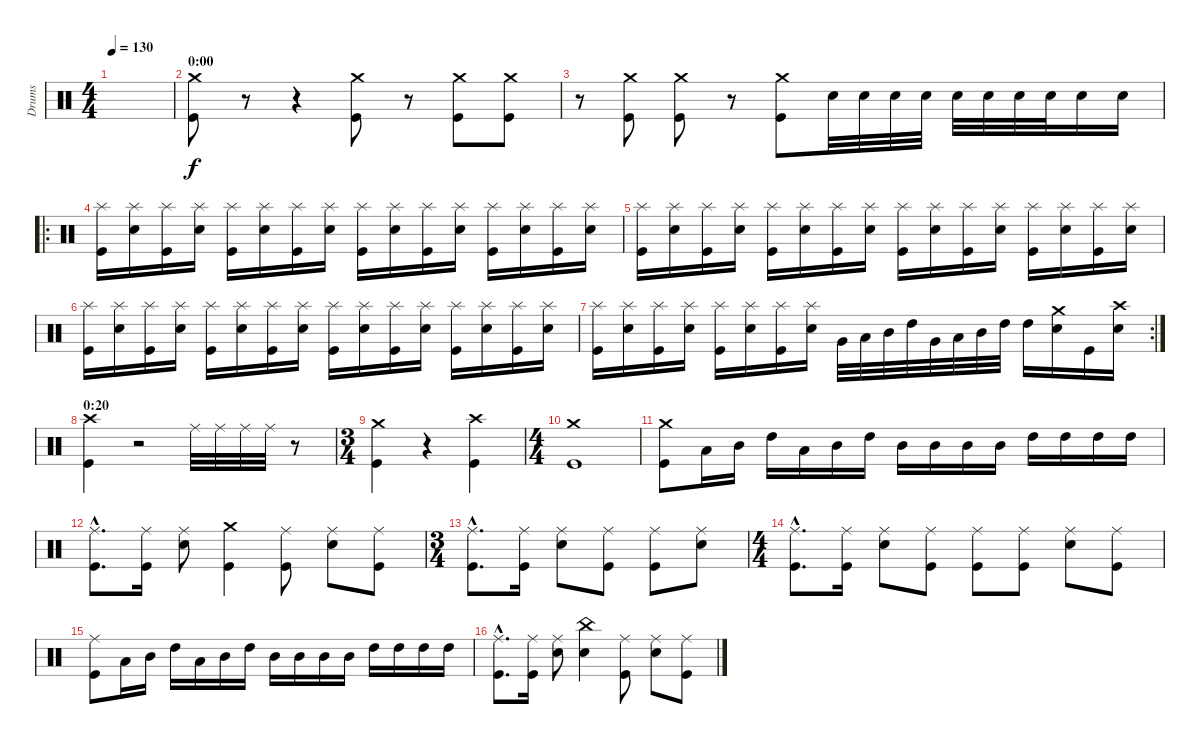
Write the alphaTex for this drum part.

\track ("Drums" "Drums") {instrument percussion}
\staff {score}
\articulation defaults
\ts (4 4)
\tempo 130
\clef neutral
\ks c
|
\section ("" "0:00")
("Kick (hit)" "Crash medium (hit)").8 r.8 r.4 ("Kick (hit)" "Crash medium (hit)").8 r.8 ("Kick (hit)" "Crash medium (hit)").8 ("Kick (hit)" "Crash medium (hit)").8 |
r.8 ("Kick (hit)" "Crash medium (hit)").8 ("Kick (hit)" "Crash medium (hit)").8 r.8 ("Kick (hit)" "Crash medium (hit)").8 "Electric Snare (hit)".32 "Electric Snare (hit)".32 "Electric Snare (hit)".32 "Electric Snare (hit)".32 "Electric Snare (hit)".32 "Electric Snare (hit)".32 "Electric Snare (hit)".32 "Electric Snare (hit)".32 "Electric Snare (hit)".16 "Electric Snare (hit)".16 |
\ro
("Kick (hit)" "Splash (hit)").16 ("Electric Snare (hit)" "Splash (hit)").16 ("Kick (hit)" "Splash (hit)").16 ("Electric Snare (hit)" "Splash (hit)").16 ("Kick (hit)" "Splash (hit)").16 ("Electric Snare (hit)" "Splash (hit)").16 ("Kick (hit)" "Splash (hit)").16 ("Electric Snare (hit)" "Splash (hit)").16 ("Kick (hit)" "Splash (hit)").16 ("Electric Snare (hit)" "Splash (hit)").16 ("Kick (hit)" "Splash (hit)").16 ("Electric Snare (hit)" "Splash (hit)").16 ("Kick (hit)" "Splash (hit)").16 ("Electric Snare (hit)" "Splash (hit)").16 ("Kick (hit)" "Splash (hit)").16 ("Electric Snare (hit)" "Splash (hit)").16 |
("Kick (hit)" "Splash (hit)").16 ("Electric Snare (hit)" "Splash (hit)").16 ("Kick (hit)" "Splash (hit)").16 ("Electric Snare (hit)" "Splash (hit)").16 ("Kick (hit)" "Splash (hit)").16 ("Electric Snare (hit)" "Splash (hit)").16 ("Kick (hit)" "Splash (hit)").16 ("Electric Snare (hit)" "Splash (hit)").16 ("Kick (hit)" "Splash (hit)").16 ("Electric Snare (hit)" "Splash (hit)").16 ("Kick (hit)" "Splash (hit)").16 ("Electric Snare (hit)" "Splash (hit)").16 ("Kick (hit)" "Splash (hit)").16 ("Electric Snare (hit)" "Splash (hit)").16 ("Kick (hit)" "Splash (hit)").16 ("Electric Snare (hit)" "Splash (hit)").16 |
("Kick (hit)" "Splash (hit)").16 ("Electric Snare (hit)" "Splash (hit)").16 ("Kick (hit)" "Splash (hit)").16 ("Electric Snare (hit)" "Splash (hit)").16 ("Kick (hit)" "Splash (hit)").16 ("Electric Snare (hit)" "Splash (hit)").16 ("Kick (hit)" "Splash (hit)").16 ("Electric Snare (hit)" "Splash (hit)").16 ("Kick (hit)" "Splash (hit)").16 ("Electric Snare (hit)" "Splash (hit)").16 ("Kick (hit)" "Splash (hit)").16 ("Electric Snare (hit)" "Splash (hit)").16 ("Kick (hit)" "Splash (hit)").16 ("Electric Snare (hit)" "Splash (hit)").16 ("Kick (hit)" "Splash (hit)").16 ("Electric Snare (hit)" "Splash (hit)").16 |
\rc 2
("Kick (hit)" "Splash (hit)").16 ("Electric Snare (hit)" "Splash (hit)").16 ("Kick (hit)" "Splash (hit)").16 ("Electric Snare (hit)" "Splash (hit)").16 ("Kick (hit)" "Splash (hit)").16 ("Electric Snare (hit)" "Splash (hit)").16 ("Kick (hit)" "Splash (hit)").16 ("Electric Snare (hit)" "Splash (hit)").16 "Very Low Tom (hit)".32 "Low Tom (hit)".32 "Mid Tom (hit)".32 "High Tom (hit)".32 "Very Low Tom (hit)".32 "Low Tom (hit)".32 "Mid Tom (hit)".32 "High Tom (hit)".32 "High Tom (hit)".16 ("Electric Snare (hit)" "Crash medium (hit)").16 "Kick (hit)".16 ("Electric Snare (hit)" "Crash high (hit)").16 |
\section ("" "0:20")
("Kick (hit)" "Crash high (hit)").4 r.2 "Ride (middle)".32 "Ride (middle)".32 "Ride (middle)".32 "Ride (middle)".32 r.8 |
\ts (3 4)
("Kick (hit)" "Crash medium (hit)").4 r.4 ("Kick (hit)" "Crash high (hit)").4 |
\ts (4 4)
("Kick (hit)" "Crash medium (hit)").1 |
("Kick (hit)" "Crash medium (hit)").8 "Low Tom (hit)".16 "Mid Tom (hit)".16 "High Tom (hit)".16 "Low Tom (hit)".16 "Mid Tom (hit)".16 "High Tom (hit)".16 "Mid Tom (hit)".16 "Mid Tom (hit)".16 "Mid Tom (hit)".16 "Mid Tom (hit)".16 "High Tom (hit)".16 "High Tom (hit)".16 "High Tom (hit)".16 "High Tom (hit)".16 |
("Kick (hit)"{hac} "Ride (middle)"{hac}).8{d} ("Kick (hit)" "Ride (middle)").16 ("Electric Snare (hit)" "Ride (middle)").8 ("Kick (hit)" "Crash medium (hit)").4 ("Kick (hit)" "Ride (middle)").8 ("Electric Snare (hit)" "Ride (middle)").8 ("Kick (hit)" "Ride (middle)").8 |
\ts (3 4)
("Kick (hit)"{hac} "Ride (middle)"{hac}).8{d} ("Kick (hit)" "Ride (middle)").16 ("Electric Snare (hit)" "Ride (middle)").8 ("Kick (hit)" "Ride (middle)").8 ("Kick (hit)" "Ride (middle)").8 ("Electric Snare (hit)" "Ride (middle)").8 |
\ts (4 4)
("Kick (hit)"{hac} "Ride (middle)"{hac}).8{d} ("Kick (hit)" "Ride (middle)").16 ("Electric Snare (hit)" "Ride (middle)").8 ("Kick (hit)" "Ride (middle)").8 ("Kick (hit)" "Ride (middle)").8 ("Kick (hit)" "Ride (middle)").8 ("Electric Snare (hit)" "Ride (middle)").8 ("Kick (hit)" "Ride (middle)").8 |
("Kick (hit)" "Ride (middle)").8 "Low Tom (hit)".16 "Mid Tom (hit)".16 "High Tom (hit)".16 "Low Tom (hit)".16 "Mid Tom (hit)".16 "High Tom (hit)".16 "Mid Tom (hit)".16 "Mid Tom (hit)".16 "Mid Tom (hit)".16 "Mid Tom (hit)".16 "High Tom (hit)".16 "High Tom (hit)".16 "High Tom (hit)".16 "High Tom (hit)".16 |
("Kick (hit)"{hac} "Ride (middle)"{hac}).8{d} ("Kick (hit)" "Ride (middle)").16 ("Electric Snare (hit)" "Ride (middle)").8 ("Electric Snare (hit)" "China (hit)").4 ("Kick (hit)" "Ride (middle)").8 ("Electric Snare (hit)" "Ride (middle)").8 ("Kick (hit)" "Ride (middle)").8
